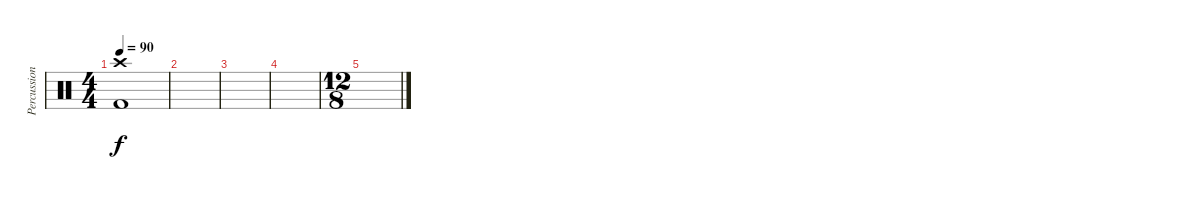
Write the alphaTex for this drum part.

\track ("Percussion" "Percussion") {instrument percussion}
\staff {score}
\articulation defaults
\ts (4 4)
\tempo 90
\clef neutral
\ks c
("Crash high (hit)" "Kick (hit) 2").1{dy f} |
|
|
|
\ts (12 8)
